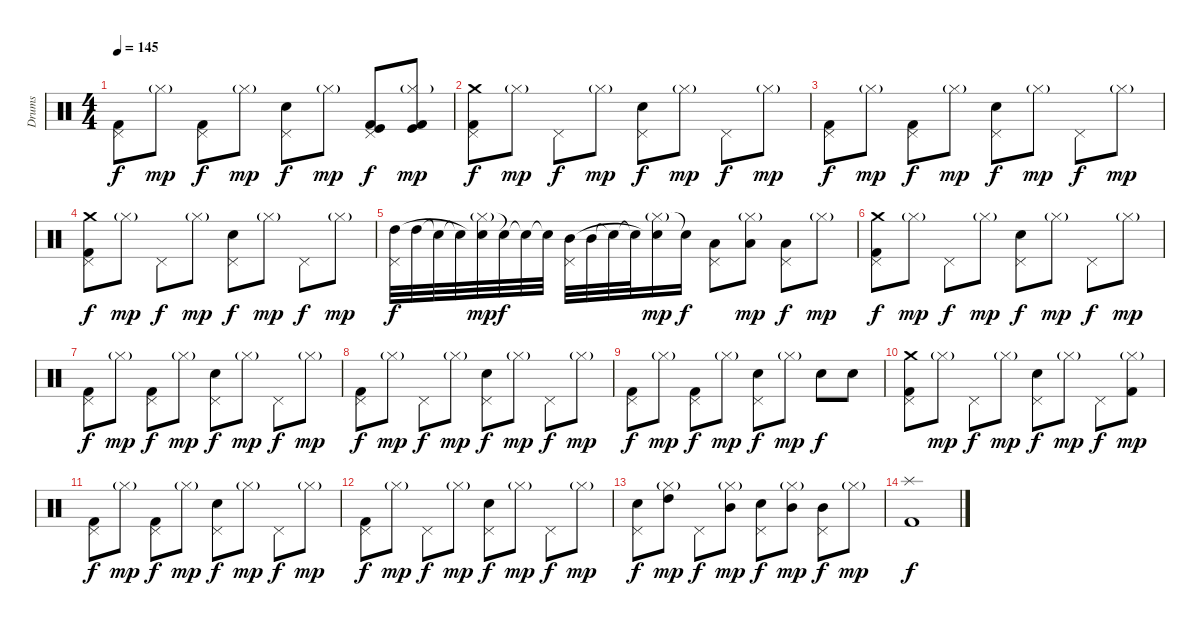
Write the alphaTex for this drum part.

\track ("Drums" "Drums") {instrument percussion}
\staff {score}
\articulation defaults
\ts (4 4)
\tempo 145
\clef neutral
\ks c
("Pedal Hi-Hat (hit)" "Kick (hit) 2").8{dy f} "Hi-Hat (closed)"{g}.8{dy mp} ("Pedal Hi-Hat (hit)" "Kick (hit) 2").8{dy f} "Hi-Hat (closed)"{g}.8{dy mp} ("Pedal Hi-Hat (hit)" "Snare (hit) 2").8{dy f} "Hi-Hat (closed)"{g}.8{dy mp} ("Pedal Hi-Hat (hit)" "Kick (hit)" "Kick (hit) 2").8{dy f} ("Hi-Hat (closed)"{g} "Kick (hit)" "Kick (hit) 2").8{dy mp} |
("Pedal Hi-Hat (hit)" "Crash medium (hit)" "Kick (hit) 2").8{dy f} "Hi-Hat (closed)"{g}.8{dy mp} "Pedal Hi-Hat (hit)".8{dy f} "Hi-Hat (closed)"{g}.8{dy mp} ("Pedal Hi-Hat (hit)" "Snare (hit) 2").8{dy f} "Hi-Hat (closed)"{g}.8{dy mp} "Pedal Hi-Hat (hit)".8{dy f} "Hi-Hat (closed)"{g}.8{dy mp} |
("Pedal Hi-Hat (hit)" "Kick (hit) 2").8{dy f} "Hi-Hat (closed)"{g}.8{dy mp} ("Pedal Hi-Hat (hit)" "Kick (hit) 2").8{dy f} "Hi-Hat (closed)"{g}.8{dy mp} ("Pedal Hi-Hat (hit)" "Snare (hit) 2").8{dy f} "Hi-Hat (closed)"{g}.8{dy mp} "Pedal Hi-Hat (hit)".8{dy f} "Hi-Hat (closed)"{g}.8{dy mp} |
("Pedal Hi-Hat (hit)" "Crash medium (hit)" "Kick (hit) 2").8{dy f} "Hi-Hat (closed)"{g}.8{dy mp} "Pedal Hi-Hat (hit)".8{dy f} "Hi-Hat (closed)"{g}.8{dy mp} ("Pedal Hi-Hat (hit)" "Snare (hit) 2").8{dy f} "Hi-Hat (closed)"{g}.8{dy mp} "Pedal Hi-Hat (hit)".8{dy f} "Hi-Hat (closed)"{g}.8{dy mp} |
("Pedal Hi-Hat (hit)" "High Tom (hit)").32{dy f} "High Tom (hit)".32 "Snare (hit)"{t}.32 "Snare (hit)"{t}.32 ("Hi-Hat (closed)"{g} "Snare (hit)"{t}).32{dy mp} "Snare (hit)"{t}.32{dy f} "Snare (hit)"{t}.32 "Snare (hit)"{t}.32 ("Pedal Hi-Hat (hit)" "Mid Tom (hit)").32 "Mid Tom (hit)".32 "Snare (hit)"{t}.32 "Snare (hit)"{t}.32 ("Hi-Hat (closed)"{g} "Snare (hit)"{t}).16{dy mp} "Snare (hit)"{t}.16{dy f} ("Pedal Hi-Hat (hit)" "Low Tom (hit)").8 ("Hi-Hat (closed)"{g} "Low Tom (hit)").8{dy mp} ("Pedal Hi-Hat (hit)" "Low Floor Tom (hit)").8{dy f} "Hi-Hat (closed)"{g}.8{dy mp} |
("Pedal Hi-Hat (hit)" "Crash medium (hit)" "Kick (hit) 2").8{dy f} "Hi-Hat (closed)"{g}.8{dy mp} "Pedal Hi-Hat (hit)".8{dy f} "Hi-Hat (closed)"{g}.8{dy mp} ("Pedal Hi-Hat (hit)" "Snare (hit) 2").8{dy f} "Hi-Hat (closed)"{g}.8{dy mp} "Pedal Hi-Hat (hit)".8{dy f} "Hi-Hat (closed)"{g}.8{dy mp} |
("Pedal Hi-Hat (hit)" "Kick (hit) 2").8{dy f} "Hi-Hat (closed)"{g}.8{dy mp} ("Pedal Hi-Hat (hit)" "Kick (hit) 2").8{dy f} "Hi-Hat (closed)"{g}.8{dy mp} ("Pedal Hi-Hat (hit)" "Snare (hit) 2").8{dy f} "Hi-Hat (closed)"{g}.8{dy mp} "Pedal Hi-Hat (hit)".8{dy f} "Hi-Hat (closed)"{g}.8{dy mp} |
("Pedal Hi-Hat (hit)" "Kick (hit) 2").8{dy f} "Hi-Hat (closed)"{g}.8{dy mp} "Pedal Hi-Hat (hit)".8{dy f} "Hi-Hat (closed)"{g}.8{dy mp} ("Pedal Hi-Hat (hit)" "Snare (hit) 2").8{dy f} "Hi-Hat (closed)"{g}.8{dy mp} "Pedal Hi-Hat (hit)".8{dy f} "Hi-Hat (closed)"{g}.8{dy mp} |
("Pedal Hi-Hat (hit)" "Kick (hit) 2").8{dy f} "Hi-Hat (closed)"{g}.8{dy mp} ("Pedal Hi-Hat (hit)" "Kick (hit) 2").8{dy f} "Hi-Hat (closed)"{g}.8{dy mp} ("Pedal Hi-Hat (hit)" "Snare (hit) 2").8{dy f} "Hi-Hat (closed)"{g}.8{dy mp} "Snare (hit) 2".8{dy f} "Snare (hit) 2".8 |
("Pedal Hi-Hat (hit)" "Crash medium (hit)" "Kick (hit) 2").8 "Hi-Hat (closed)"{g}.8{dy mp} "Pedal Hi-Hat (hit)".8{dy f} "Hi-Hat (closed)"{g}.8{dy mp} ("Pedal Hi-Hat (hit)" "Snare (hit) 2").8{dy f} "Hi-Hat (closed)"{g}.8{dy mp} "Pedal Hi-Hat (hit)".8{dy f} ("Hi-Hat (closed)"{g} "Kick (hit) 2").8{dy mp} |
("Pedal Hi-Hat (hit)" "Kick (hit) 2").8{dy f} "Hi-Hat (closed)"{g}.8{dy mp} ("Pedal Hi-Hat (hit)" "Kick (hit) 2").8{dy f} "Hi-Hat (closed)"{g}.8{dy mp} ("Pedal Hi-Hat (hit)" "Snare (hit) 2").8{dy f} "Hi-Hat (closed)"{g}.8{dy mp} "Pedal Hi-Hat (hit)".8{dy f} "Hi-Hat (closed)"{g}.8{dy mp} |
("Pedal Hi-Hat (hit)" "Kick (hit) 2").8{dy f} "Hi-Hat (closed)"{g}.8{dy mp} "Pedal Hi-Hat (hit)".8{dy f} "Hi-Hat (closed)"{g}.8{dy mp} ("Pedal Hi-Hat (hit)" "Snare (hit) 2").8{dy f} "Hi-Hat (closed)"{g}.8{dy mp} "Pedal Hi-Hat (hit)".8{dy f} "Hi-Hat (closed)"{g}.8{dy mp} |
("Pedal Hi-Hat (hit)" "Electric Snare (hit)").8{dy f} ("Hi-Hat (closed)"{g} "High Tom (hit)").8{dy mp} "Pedal Hi-Hat (hit)".8{dy f} ("Hi-Hat (closed)"{g} "Mid Tom (hit)").8{dy mp} ("Pedal Hi-Hat (hit)" "Electric Snare (hit)").8{dy f} ("Hi-Hat (closed)"{g} "Mid Tom (hit)").8{dy mp} ("Pedal Hi-Hat (hit)" "Mid Tom (hit)").8{dy f} "Hi-Hat (closed)"{g}.8{dy mp} |
("Splash (hit)" "Kick (hit) 2").1{dy f}
